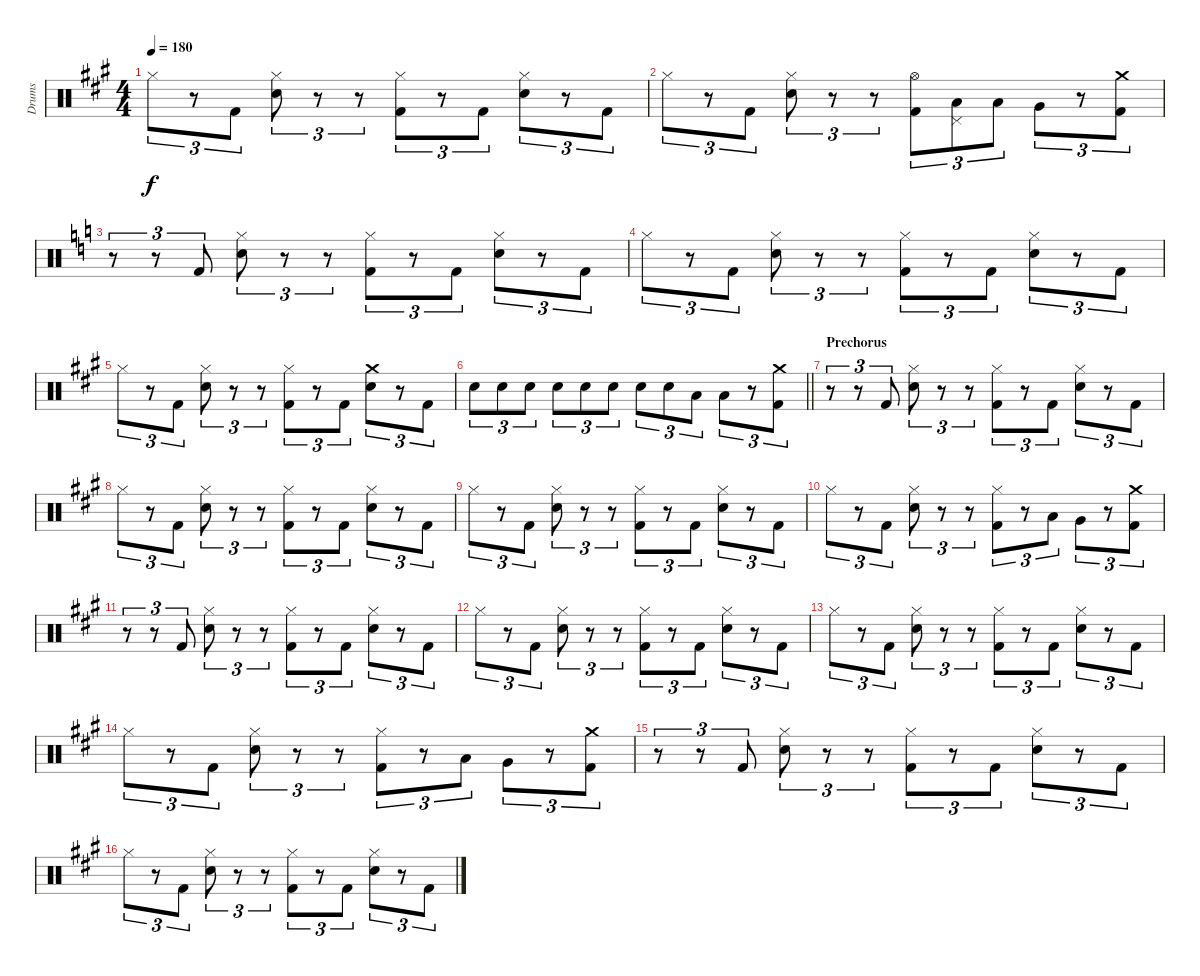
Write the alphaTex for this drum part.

\track ("Drums" "Drums") {instrument percussion}
\staff {score}
\articulation defaults
\ts (4 4)
\tempo 180
\clef neutral
\ks a "Hi-Hat (closed)".8{tu (3 2) dy f}
r.8{tu (3 2)} "Kick (hit) 2".8{tu (3 2)} ("Hi-Hat (closed)" "Snare (hit) 2").8{tu (3 2)} r.8{tu (3 2)} r.8{tu (3 2)} ("Hi-Hat (closed)" "Kick (hit) 2").8{tu (3 2)} r.8{tu (3 2)} "Kick (hit) 2".8{tu (3 2)} ("Hi-Hat (closed)" "Snare (hit) 2").8{tu (3 2)} r.8{tu (3 2)} "Kick (hit) 2".8{tu (3 2)} |
"Hi-Hat (closed)".8{tu (3 2)} r.8{tu (3 2)} "Kick (hit) 2".8{tu (3 2)} ("Hi-Hat (closed)" "Snare (hit) 2").8{tu (3 2)} r.8{tu (3 2)} r.8{tu (3 2)} ("Hi-Hat (open)" "Kick (hit) 2").8{tu (3 2)} ("Pedal Hi-Hat (hit)" "Low Tom (hit)").8{tu (3 2)} "Low Tom (hit)".8{tu (3 2)} "Very Low Tom (hit)".8{tu (3 2)} r.8{tu (3 2)} ("Crash medium (hit)" "Kick (hit) 2").8{tu (3 2)} |
\ks c
r.8{tu (3 2)} r.8{tu (3 2)} "Kick (hit) 2".8{tu (3 2)} ("Hi-Hat (closed)" "Snare (hit) 2").8{tu (3 2)} r.8{tu (3 2)} r.8{tu (3 2)} ("Hi-Hat (closed)" "Kick (hit) 2").8{tu (3 2)} r.8{tu (3 2)} "Kick (hit) 2".8{tu (3 2)} ("Hi-Hat (closed)" "Snare (hit) 2").8{tu (3 2)} r.8{tu (3 2)} "Kick (hit) 2".8{tu (3 2)} |
"Hi-Hat (closed)".8{tu (3 2)} r.8{tu (3 2)} "Kick (hit) 2".8{tu (3 2)} ("Hi-Hat (closed)" "Snare (hit) 2").8{tu (3 2)} r.8{tu (3 2)} r.8{tu (3 2)} ("Hi-Hat (closed)" "Kick (hit) 2").8{tu (3 2)} r.8{tu (3 2)} "Kick (hit) 2".8{tu (3 2)} ("Hi-Hat (closed)" "Snare (hit) 2").8{tu (3 2)} r.8{tu (3 2)} "Kick (hit) 2".8{tu (3 2)} |
\ks a "Hi-Hat (closed)".8{tu (3 2)}
r.8{tu (3 2)} "Kick (hit) 2".8{tu (3 2)} ("Hi-Hat (closed)" "Snare (hit) 2").8{tu (3 2)} r.8{tu (3 2)} r.8{tu (3 2)} ("Hi-Hat (closed)" "Kick (hit) 2").8{tu (3 2)} r.8{tu (3 2)} "Kick (hit) 2".8{tu (3 2)} ("Crash medium (hit)" "Snare (hit) 2").8{tu (3 2)} r.8{tu (3 2)} "Kick (hit) 2".8{tu (3 2)} |
\barLineRight lightlight "Snare (hit) 2".8{tu (3 2)} "Snare (hit) 2".8{tu (3 2)} "Snare (hit) 2".8{tu (3 2)} "Snare (hit) 2".8{tu (3 2)} "Snare (hit) 2".8{tu (3 2)} "Snare (hit) 2".8{tu (3 2)} "Snare (hit) 2".8{tu (3 2)} "Snare (hit) 2".8{tu (3 2)} "Low Tom (hit)".8{tu (3 2)} "Low Tom (hit)".8{tu (3 2)}
r.8{tu (3 2)} ("Crash medium (hit)" "Kick (hit) 2").8{tu (3 2)} |
\section ("" "Prechorus")
r.8{tu (3 2)} r.8{tu (3 2)} "Kick (hit) 2".8{tu (3 2)} ("Hi-Hat (closed)" "Snare (hit) 2").8{tu (3 2)} r.8{tu (3 2)} r.8{tu (3 2)} ("Hi-Hat (closed)" "Kick (hit) 2").8{tu (3 2)} r.8{tu (3 2)} "Kick (hit) 2".8{tu (3 2)} ("Hi-Hat (closed)" "Snare (hit) 2").8{tu (3 2)} r.8{tu (3 2)} "Kick (hit) 2".8{tu (3 2)} |
"Hi-Hat (closed)".8{tu (3 2)} r.8{tu (3 2)} "Kick (hit) 2".8{tu (3 2)} ("Hi-Hat (closed)" "Snare (hit) 2").8{tu (3 2)} r.8{tu (3 2)} r.8{tu (3 2)} ("Hi-Hat (closed)" "Kick (hit) 2").8{tu (3 2)} r.8{tu (3 2)} "Kick (hit) 2".8{tu (3 2)} ("Hi-Hat (closed)" "Snare (hit) 2").8{tu (3 2)} r.8{tu (3 2)} "Kick (hit) 2".8{tu (3 2)} |
"Hi-Hat (closed)".8{tu (3 2)} r.8{tu (3 2)} "Kick (hit) 2".8{tu (3 2)} ("Hi-Hat (closed)" "Snare (hit) 2").8{tu (3 2)} r.8{tu (3 2)} r.8{tu (3 2)} ("Hi-Hat (closed)" "Kick (hit) 2").8{tu (3 2)} r.8{tu (3 2)} "Kick (hit) 2".8{tu (3 2)} ("Hi-Hat (closed)" "Snare (hit) 2").8{tu (3 2)} r.8{tu (3 2)} "Kick (hit) 2".8{tu (3 2)} |
"Hi-Hat (closed)".8{tu (3 2)} r.8{tu (3 2)} "Kick (hit) 2".8{tu (3 2)} ("Hi-Hat (closed)" "Snare (hit) 2").8{tu (3 2)} r.8{tu (3 2)} r.8{tu (3 2)} ("Hi-Hat (closed)" "Kick (hit) 2").8{tu (3 2)} r.8{tu (3 2)} "Low Tom (hit)".8{tu (3 2)} "Very Low Tom (hit)".8{tu (3 2)} r.8{tu (3 2)} ("Crash medium (hit)" "Kick (hit) 2").8{tu (3 2)} |
r.8{tu (3 2)} r.8{tu (3 2)} "Kick (hit) 2".8{tu (3 2)} ("Hi-Hat (closed)" "Snare (hit) 2").8{tu (3 2)} r.8{tu (3 2)} r.8{tu (3 2)} ("Hi-Hat (closed)" "Kick (hit) 2").8{tu (3 2)} r.8{tu (3 2)} "Kick (hit) 2".8{tu (3 2)} ("Hi-Hat (closed)" "Snare (hit) 2").8{tu (3 2)} r.8{tu (3 2)} "Kick (hit) 2".8{tu (3 2)} |
"Hi-Hat (closed)".8{tu (3 2)} r.8{tu (3 2)} "Kick (hit) 2".8{tu (3 2)} ("Hi-Hat (closed)" "Snare (hit) 2").8{tu (3 2)} r.8{tu (3 2)} r.8{tu (3 2)} ("Hi-Hat (closed)" "Kick (hit) 2").8{tu (3 2)} r.8{tu (3 2)} "Kick (hit) 2".8{tu (3 2)} ("Hi-Hat (closed)" "Snare (hit) 2").8{tu (3 2)} r.8{tu (3 2)} "Kick (hit) 2".8{tu (3 2)} |
"Hi-Hat (closed)".8{tu (3 2)} r.8{tu (3 2)} "Kick (hit) 2".8{tu (3 2)} ("Hi-Hat (closed)" "Snare (hit) 2").8{tu (3 2)} r.8{tu (3 2)} r.8{tu (3 2)} ("Hi-Hat (closed)" "Kick (hit) 2").8{tu (3 2)} r.8{tu (3 2)} "Kick (hit) 2".8{tu (3 2)} ("Hi-Hat (closed)" "Snare (hit) 2").8{tu (3 2)} r.8{tu (3 2)} "Kick (hit) 2".8{tu (3 2)} |
"Hi-Hat (closed)".8{tu (3 2)} r.8{tu (3 2)} "Kick (hit) 2".8{tu (3 2)} ("Hi-Hat (closed)" "Snare (hit) 2").8{tu (3 2)} r.8{tu (3 2)} r.8{tu (3 2)} ("Hi-Hat (closed)" "Kick (hit) 2").8{tu (3 2)} r.8{tu (3 2)} "Low Tom (hit)".8{tu (3 2)} "Very Low Tom (hit)".8{tu (3 2)} r.8{tu (3 2)} ("Crash medium (hit)" "Kick (hit) 2").8{tu (3 2)} |
r.8{tu (3 2)} r.8{tu (3 2)} "Kick (hit) 2".8{tu (3 2)} ("Hi-Hat (closed)" "Snare (hit) 2").8{tu (3 2)} r.8{tu (3 2)} r.8{tu (3 2)} ("Hi-Hat (closed)" "Kick (hit) 2").8{tu (3 2)} r.8{tu (3 2)} "Kick (hit) 2".8{tu (3 2)} ("Hi-Hat (closed)" "Snare (hit) 2").8{tu (3 2)} r.8{tu (3 2)} "Kick (hit) 2".8{tu (3 2)} |
"Hi-Hat (closed)".8{tu (3 2)} r.8{tu (3 2)} "Kick (hit) 2".8{tu (3 2)} ("Hi-Hat (closed)" "Snare (hit) 2").8{tu (3 2)} r.8{tu (3 2)} r.8{tu (3 2)} ("Hi-Hat (closed)" "Kick (hit) 2").8{tu (3 2)} r.8{tu (3 2)} "Kick (hit) 2".8{tu (3 2)} ("Hi-Hat (closed)" "Snare (hit) 2").8{tu (3 2)} r.8{tu (3 2)} "Kick (hit) 2".8{tu (3 2)}
